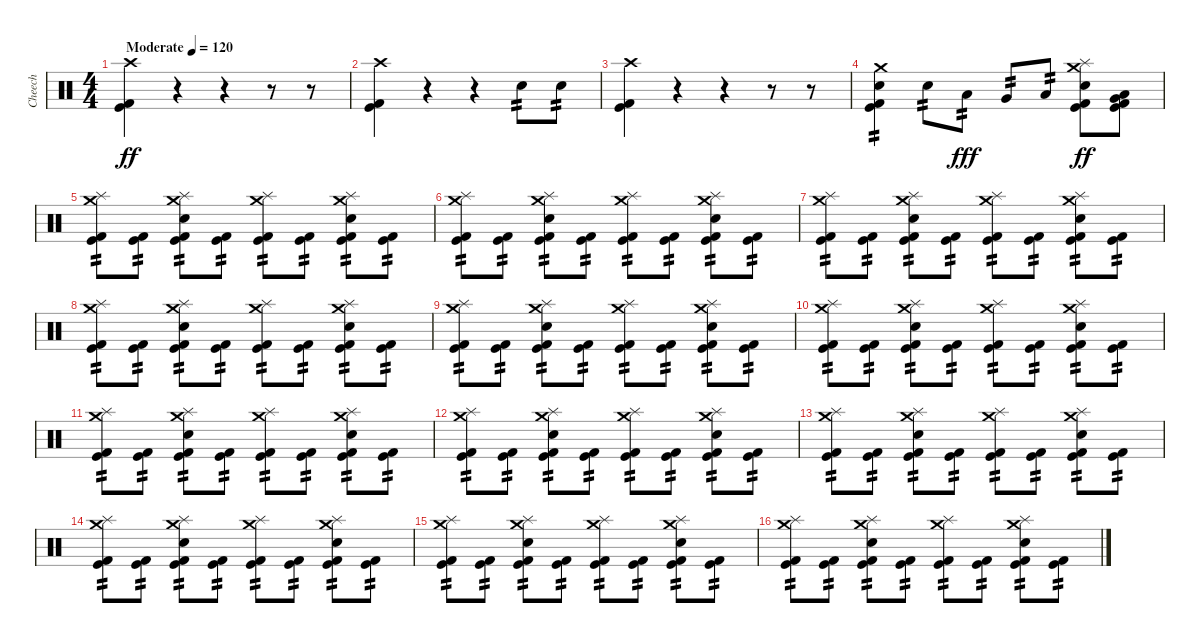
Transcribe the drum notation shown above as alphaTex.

\track ("Cheech" "Cheech") {instrument percussion}
\staff {score}
\articulation defaults
\ts (4 4)
\tempo (120 "Moderate")
\clef neutral
\ks c
("Crash high (hit)" "Kick (hit) 2" "Kick (hit)").4{dy ff} r.4 r.4 r.8 r.8 |
("Crash high (hit)" "Kick (hit) 2" "Kick (hit)").4 r.4 r.4 "Electric Snare (hit)".8{tp 2} "Electric Snare (hit)".8{tp 2} |
("Crash high (hit)" "Kick (hit) 2" "Kick (hit)").4 r.4 r.4 r.8 r.8 |
("Crash medium (hit)" "Electric Snare (hit)" "Kick (hit) 2" "Kick (hit)").4{tp 2} "Electric Snare (hit)".8{tp 2} "Low Tom (hit)".8{tp 2 dy fff} "Very Low Tom (hit)".8{tp 2} "Low Floor Tom (hit)".8{tp 2} ("Splash (hit)" "Crash medium (hit)" "Electric Snare (hit)" "Kick (hit) 2" "Kick (hit)").8{dy ff} ("Very Low Tom (hit)" "Low Floor Tom (hit)" "Kick (hit) 2" "Kick (hit)").8 |
("Splash (hit)" "Crash medium (hit)" "Kick (hit) 2" "Kick (hit)").8{tp 2} ("Kick (hit) 2" "Kick (hit)").8{tp 2} ("Splash (hit)" "Crash medium (hit)" "Electric Snare (hit)" "Kick (hit) 2" "Kick (hit)").8{tp 2} ("Kick (hit) 2" "Kick (hit)").8{tp 2} ("Splash (hit)" "Crash medium (hit)" "Kick (hit) 2" "Kick (hit)").8{tp 2} ("Kick (hit) 2" "Kick (hit)").8{tp 2} ("Splash (hit)" "Crash medium (hit)" "Electric Snare (hit)" "Kick (hit) 2" "Kick (hit)").8{tp 2} ("Kick (hit) 2" "Kick (hit)").8{tp 2} |
("Splash (hit)" "Crash medium (hit)" "Kick (hit) 2" "Kick (hit)").8{tp 2} ("Kick (hit) 2" "Kick (hit)").8{tp 2} ("Splash (hit)" "Crash medium (hit)" "Electric Snare (hit)" "Kick (hit) 2" "Kick (hit)").8{tp 2} ("Kick (hit) 2" "Kick (hit)").8{tp 2} ("Splash (hit)" "Crash medium (hit)" "Kick (hit) 2" "Kick (hit)").8{tp 2} ("Kick (hit) 2" "Kick (hit)").8{tp 2} ("Splash (hit)" "Crash medium (hit)" "Electric Snare (hit)" "Kick (hit) 2" "Kick (hit)").8{tp 2} ("Kick (hit) 2" "Kick (hit)").8{tp 2} |
("Splash (hit)" "Crash medium (hit)" "Kick (hit) 2" "Kick (hit)").8{tp 2} ("Kick (hit) 2" "Kick (hit)").8{tp 2} ("Splash (hit)" "Crash medium (hit)" "Electric Snare (hit)" "Kick (hit) 2" "Kick (hit)").8{tp 2} ("Kick (hit) 2" "Kick (hit)").8{tp 2} ("Splash (hit)" "Crash medium (hit)" "Kick (hit) 2" "Kick (hit)").8{tp 2} ("Kick (hit) 2" "Kick (hit)").8{tp 2} ("Splash (hit)" "Crash medium (hit)" "Electric Snare (hit)" "Kick (hit) 2" "Kick (hit)").8{tp 2} ("Kick (hit) 2" "Kick (hit)").8{tp 2} |
("Splash (hit)" "Crash medium (hit)" "Kick (hit) 2" "Kick (hit)").8{tp 2} ("Kick (hit) 2" "Kick (hit)").8{tp 2} ("Splash (hit)" "Crash medium (hit)" "Electric Snare (hit)" "Kick (hit) 2" "Kick (hit)").8{tp 2} ("Kick (hit) 2" "Kick (hit)").8{tp 2} ("Splash (hit)" "Crash medium (hit)" "Kick (hit) 2" "Kick (hit)").8{tp 2} ("Kick (hit) 2" "Kick (hit)").8{tp 2} ("Splash (hit)" "Crash medium (hit)" "Electric Snare (hit)" "Kick (hit) 2" "Kick (hit)").8{tp 2} ("Kick (hit) 2" "Kick (hit)").8{tp 2} |
("Splash (hit)" "Crash medium (hit)" "Kick (hit) 2" "Kick (hit)").8{tp 2} ("Kick (hit) 2" "Kick (hit)").8{tp 2} ("Splash (hit)" "Crash medium (hit)" "Electric Snare (hit)" "Kick (hit) 2" "Kick (hit)").8{tp 2} ("Kick (hit) 2" "Kick (hit)").8{tp 2} ("Splash (hit)" "Crash medium (hit)" "Kick (hit) 2" "Kick (hit)").8{tp 2} ("Kick (hit) 2" "Kick (hit)").8{tp 2} ("Splash (hit)" "Crash medium (hit)" "Electric Snare (hit)" "Kick (hit) 2" "Kick (hit)").8{tp 2} ("Kick (hit) 2" "Kick (hit)").8{tp 2} |
("Splash (hit)" "Crash medium (hit)" "Kick (hit) 2" "Kick (hit)").8{tp 2} ("Kick (hit) 2" "Kick (hit)").8{tp 2} ("Splash (hit)" "Crash medium (hit)" "Electric Snare (hit)" "Kick (hit) 2" "Kick (hit)").8{tp 2} ("Kick (hit) 2" "Kick (hit)").8{tp 2} ("Splash (hit)" "Crash medium (hit)" "Kick (hit) 2" "Kick (hit)").8{tp 2} ("Kick (hit) 2" "Kick (hit)").8{tp 2} ("Splash (hit)" "Crash medium (hit)" "Electric Snare (hit)" "Kick (hit) 2" "Kick (hit)").8{tp 2} ("Kick (hit) 2" "Kick (hit)").8{tp 2} |
("Splash (hit)" "Crash medium (hit)" "Kick (hit) 2" "Kick (hit)").8{tp 2} ("Kick (hit) 2" "Kick (hit)").8{tp 2} ("Splash (hit)" "Crash medium (hit)" "Electric Snare (hit)" "Kick (hit) 2" "Kick (hit)").8{tp 2} ("Kick (hit) 2" "Kick (hit)").8{tp 2} ("Splash (hit)" "Crash medium (hit)" "Kick (hit) 2" "Kick (hit)").8{tp 2} ("Kick (hit) 2" "Kick (hit)").8{tp 2} ("Splash (hit)" "Crash medium (hit)" "Electric Snare (hit)" "Kick (hit) 2" "Kick (hit)").8{tp 2} ("Kick (hit) 2" "Kick (hit)").8{tp 2} |
("Splash (hit)" "Crash medium (hit)" "Kick (hit) 2" "Kick (hit)").8{tp 2} ("Kick (hit) 2" "Kick (hit)").8{tp 2} ("Splash (hit)" "Crash medium (hit)" "Electric Snare (hit)" "Kick (hit) 2" "Kick (hit)").8{tp 2} ("Kick (hit) 2" "Kick (hit)").8{tp 2} ("Splash (hit)" "Crash medium (hit)" "Kick (hit) 2" "Kick (hit)").8{tp 2} ("Kick (hit) 2" "Kick (hit)").8{tp 2} ("Splash (hit)" "Crash medium (hit)" "Electric Snare (hit)" "Kick (hit) 2" "Kick (hit)").8{tp 2} ("Kick (hit) 2" "Kick (hit)").8{tp 2} |
("Splash (hit)" "Crash medium (hit)" "Kick (hit) 2" "Kick (hit)").8{tp 2} ("Kick (hit) 2" "Kick (hit)").8{tp 2} ("Splash (hit)" "Crash medium (hit)" "Electric Snare (hit)" "Kick (hit) 2" "Kick (hit)").8{tp 2} ("Kick (hit) 2" "Kick (hit)").8{tp 2} ("Splash (hit)" "Crash medium (hit)" "Kick (hit) 2" "Kick (hit)").8{tp 2} ("Kick (hit) 2" "Kick (hit)").8{tp 2} ("Splash (hit)" "Crash medium (hit)" "Electric Snare (hit)" "Kick (hit) 2" "Kick (hit)").8{tp 2} ("Kick (hit) 2" "Kick (hit)").8{tp 2} |
("Splash (hit)" "Crash medium (hit)" "Kick (hit) 2" "Kick (hit)").8{tp 2} ("Kick (hit) 2" "Kick (hit)").8{tp 2} ("Splash (hit)" "Crash medium (hit)" "Electric Snare (hit)" "Kick (hit) 2" "Kick (hit)").8{tp 2} ("Kick (hit) 2" "Kick (hit)").8{tp 2} ("Splash (hit)" "Crash medium (hit)" "Kick (hit) 2" "Kick (hit)").8{tp 2} ("Kick (hit) 2" "Kick (hit)").8{tp 2} ("Splash (hit)" "Crash medium (hit)" "Electric Snare (hit)" "Kick (hit) 2" "Kick (hit)").8{tp 2} ("Kick (hit) 2" "Kick (hit)").8{tp 2} |
("Splash (hit)" "Crash medium (hit)" "Kick (hit) 2" "Kick (hit)").8{tp 2} ("Kick (hit) 2" "Kick (hit)").8{tp 2} ("Splash (hit)" "Crash medium (hit)" "Electric Snare (hit)" "Kick (hit) 2" "Kick (hit)").8{tp 2} ("Kick (hit) 2" "Kick (hit)").8{tp 2} ("Splash (hit)" "Crash medium (hit)" "Kick (hit) 2" "Kick (hit)").8{tp 2} ("Kick (hit) 2" "Kick (hit)").8{tp 2} ("Splash (hit)" "Crash medium (hit)" "Electric Snare (hit)" "Kick (hit) 2" "Kick (hit)").8{tp 2} ("Kick (hit) 2" "Kick (hit)").8{tp 2} |
("Splash (hit)" "Crash medium (hit)" "Kick (hit) 2" "Kick (hit)").8{tp 2} ("Kick (hit) 2" "Kick (hit)").8{tp 2} ("Splash (hit)" "Crash medium (hit)" "Electric Snare (hit)" "Kick (hit) 2" "Kick (hit)").8{tp 2} ("Kick (hit) 2" "Kick (hit)").8{tp 2} ("Splash (hit)" "Crash medium (hit)" "Kick (hit) 2" "Kick (hit)").8{tp 2} ("Kick (hit) 2" "Kick (hit)").8{tp 2} ("Splash (hit)" "Crash medium (hit)" "Electric Snare (hit)" "Kick (hit) 2" "Kick (hit)").8{tp 2} ("Kick (hit) 2" "Kick (hit)").8{tp 2}
